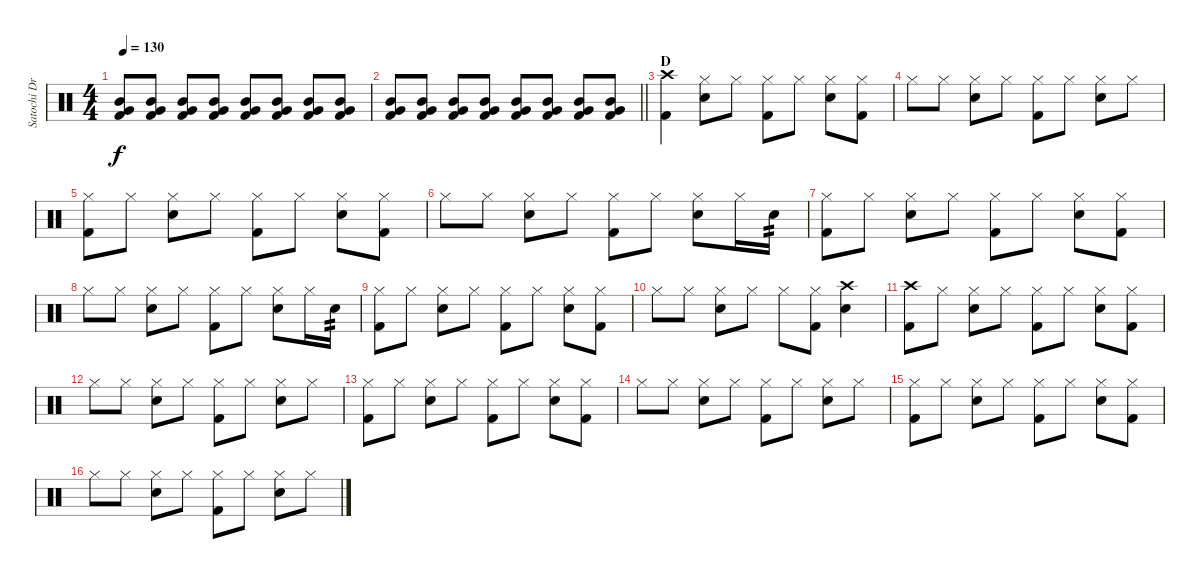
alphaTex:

\track ("Satochi Drums" "Satochi Dr") {instrument percussion}
\staff {score}
\articulation defaults
\ts (4 4)
\tempo 130
\clef neutral
\ks c
("Mid Tom (hit)" "Very Low Tom (hit)" "Kick (hit) 2").8{dy f} ("Mid Tom (hit)" "Very Low Tom (hit)" "Kick (hit) 2").8 ("Mid Tom (hit)" "Very Low Tom (hit)" "Kick (hit) 2").8 ("Mid Tom (hit)" "Very Low Tom (hit)" "Kick (hit) 2").8 ("Mid Tom (hit)" "Very Low Tom (hit)" "Kick (hit) 2").8 ("Mid Tom (hit)" "Very Low Tom (hit)" "Kick (hit) 2").8 ("Mid Tom (hit)" "Very Low Tom (hit)" "Kick (hit) 2").8 ("Mid Tom (hit)" "Very Low Tom (hit)" "Kick (hit) 2").8 |
\barLineRight lightlight
("Mid Tom (hit)" "Very Low Tom (hit)" "Kick (hit) 2").8 ("Mid Tom (hit)" "Very Low Tom (hit)" "Kick (hit) 2").8 ("Mid Tom (hit)" "Very Low Tom (hit)" "Kick (hit) 2").8 ("Mid Tom (hit)" "Very Low Tom (hit)" "Kick (hit) 2").8 ("Mid Tom (hit)" "Very Low Tom (hit)" "Kick (hit) 2").8 ("Mid Tom (hit)" "Very Low Tom (hit)" "Kick (hit) 2").8 ("Mid Tom (hit)" "Very Low Tom (hit)" "Kick (hit) 2").8 ("Mid Tom (hit)" "Very Low Tom (hit)" "Kick (hit) 2").8 |
\section ("" "D")
("Crash high (hit)" "Kick (hit) 2").4 ("Hi-Hat (closed)" "Snare (hit) 2").8 "Hi-Hat (closed)".8 ("Hi-Hat (closed)" "Kick (hit) 2").8 "Hi-Hat (closed)".8 ("Hi-Hat (closed)" "Snare (hit) 2").8 ("Hi-Hat (closed)" "Kick (hit) 2").8 |
"Hi-Hat (closed)".8 "Hi-Hat (closed)".8 ("Hi-Hat (closed)" "Snare (hit) 2").8 "Hi-Hat (closed)".8 ("Hi-Hat (closed)" "Kick (hit) 2").8 "Hi-Hat (closed)".8 ("Hi-Hat (closed)" "Snare (hit) 2").8 "Hi-Hat (closed)".8 |
("Hi-Hat (closed)" "Kick (hit) 2").8 "Hi-Hat (closed)".8 ("Hi-Hat (closed)" "Snare (hit) 2").8 "Hi-Hat (closed)".8 ("Hi-Hat (closed)" "Kick (hit) 2").8 "Hi-Hat (closed)".8 ("Hi-Hat (closed)" "Snare (hit) 2").8 ("Hi-Hat (closed)" "Kick (hit) 2").8 |
"Hi-Hat (closed)".8 "Hi-Hat (closed)".8 ("Hi-Hat (closed)" "Snare (hit) 2").8 "Hi-Hat (closed)".8 ("Hi-Hat (closed)" "Kick (hit) 2").8 "Hi-Hat (closed)".8 ("Hi-Hat (closed)" "Snare (hit) 2").8 "Hi-Hat (closed)".16 "Snare (hit) 2".16{tp 2} |
("Hi-Hat (closed)" "Kick (hit) 2").8 "Hi-Hat (closed)".8 ("Hi-Hat (closed)" "Snare (hit) 2").8 "Hi-Hat (closed)".8 ("Hi-Hat (closed)" "Kick (hit) 2").8 "Hi-Hat (closed)".8 ("Hi-Hat (closed)" "Snare (hit) 2").8 ("Hi-Hat (closed)" "Kick (hit) 2").8 |
"Hi-Hat (closed)".8 "Hi-Hat (closed)".8 ("Hi-Hat (closed)" "Snare (hit) 2").8 "Hi-Hat (closed)".8 ("Hi-Hat (closed)" "Kick (hit) 2").8 "Hi-Hat (closed)".8 ("Hi-Hat (closed)" "Snare (hit) 2").8 "Hi-Hat (closed)".16 "Snare (hit) 2".16{tp 2} |
("Hi-Hat (closed)" "Kick (hit) 2").8 "Hi-Hat (closed)".8 ("Hi-Hat (closed)" "Snare (hit) 2").8 "Hi-Hat (closed)".8 ("Hi-Hat (closed)" "Kick (hit) 2").8 "Hi-Hat (closed)".8 ("Hi-Hat (closed)" "Snare (hit) 2").8 ("Hi-Hat (closed)" "Kick (hit) 2").8 |
"Hi-Hat (closed)".8 "Hi-Hat (closed)".8 ("Hi-Hat (closed)" "Snare (hit) 2").8 "Hi-Hat (closed)".8 "Hi-Hat (closed)".8 ("Hi-Hat (closed)" "Kick (hit) 2").8 ("Crash high (hit)" "Snare (hit) 2").4 |
("Crash high (hit)" "Kick (hit) 2").8 "Hi-Hat (closed)".8 ("Hi-Hat (closed)" "Snare (hit) 2").8 "Hi-Hat (closed)".8 ("Hi-Hat (closed)" "Kick (hit) 2").8 "Hi-Hat (closed)".8 ("Hi-Hat (closed)" "Snare (hit) 2").8 ("Hi-Hat (closed)" "Kick (hit) 2").8 |
"Hi-Hat (closed)".8 "Hi-Hat (closed)".8 ("Hi-Hat (closed)" "Snare (hit) 2").8 "Hi-Hat (closed)".8 ("Hi-Hat (closed)" "Kick (hit) 2").8 "Hi-Hat (closed)".8 ("Hi-Hat (closed)" "Snare (hit) 2").8 "Hi-Hat (closed)".8 |
("Hi-Hat (closed)" "Kick (hit) 2").8 "Hi-Hat (closed)".8 ("Hi-Hat (closed)" "Snare (hit) 2").8 "Hi-Hat (closed)".8 ("Hi-Hat (closed)" "Kick (hit) 2").8 "Hi-Hat (closed)".8 ("Hi-Hat (closed)" "Snare (hit) 2").8 ("Hi-Hat (closed)" "Kick (hit) 2").8 |
"Hi-Hat (closed)".8 "Hi-Hat (closed)".8 ("Hi-Hat (closed)" "Snare (hit) 2").8 "Hi-Hat (closed)".8 ("Hi-Hat (closed)" "Kick (hit) 2").8 "Hi-Hat (closed)".8 ("Hi-Hat (closed)" "Snare (hit) 2").8 "Hi-Hat (closed)".8 |
("Hi-Hat (closed)" "Kick (hit) 2").8 "Hi-Hat (closed)".8 ("Hi-Hat (closed)" "Snare (hit) 2").8 "Hi-Hat (closed)".8 ("Hi-Hat (closed)" "Kick (hit) 2").8 "Hi-Hat (closed)".8 ("Hi-Hat (closed)" "Snare (hit) 2").8 ("Hi-Hat (closed)" "Kick (hit) 2").8 |
"Hi-Hat (closed)".8 "Hi-Hat (closed)".8 ("Hi-Hat (closed)" "Snare (hit) 2").8 "Hi-Hat (closed)".8 ("Hi-Hat (closed)" "Kick (hit) 2").8 "Hi-Hat (closed)".8 ("Hi-Hat (closed)" "Snare (hit) 2").8 "Hi-Hat (closed)".8
